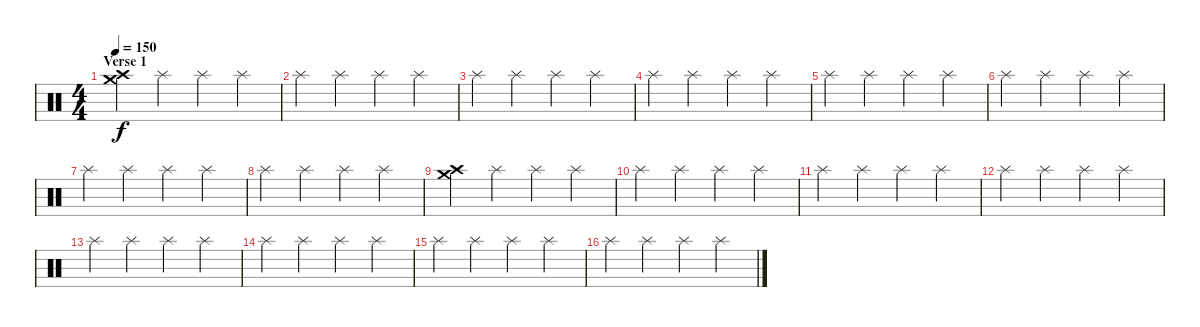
\track "" {instrument percussion}
\staff {score}
\articulation defaults
\ts (4 4)
\section ("" "Verse 1")
\tempo 150
\clef neutral
\ks c
("Crash medium (hit)" "Crash high (hit)").4{dy f} "Splash (hit)".4 "Splash (hit)".4 "Splash (hit)".4 |
"Splash (hit)".4 "Splash (hit)".4 "Splash (hit)".4 "Splash (hit)".4 |
"Splash (hit)".4 "Splash (hit)".4 "Splash (hit)".4 "Splash (hit)".4 |
"Splash (hit)".4 "Splash (hit)".4 "Splash (hit)".4 "Splash (hit)".4 |
"Splash (hit)".4 "Splash (hit)".4 "Splash (hit)".4 "Splash (hit)".4 |
"Splash (hit)".4 "Splash (hit)".4 "Splash (hit)".4 "Splash (hit)".4 |
"Splash (hit)".4 "Splash (hit)".4 "Splash (hit)".4 "Splash (hit)".4 |
"Splash (hit)".4 "Splash (hit)".4 "Splash (hit)".4 "Splash (hit)".4 |
("Crash medium (hit)" "Crash high (hit)").4 "Splash (hit)".4 "Splash (hit)".4 "Splash (hit)".4 |
"Splash (hit)".4 "Splash (hit)".4 "Splash (hit)".4 "Splash (hit)".4 |
"Splash (hit)".4 "Splash (hit)".4 "Splash (hit)".4 "Splash (hit)".4 |
"Splash (hit)".4 "Splash (hit)".4 "Splash (hit)".4 "Splash (hit)".4 |
"Splash (hit)".4 "Splash (hit)".4 "Splash (hit)".4 "Splash (hit)".4 |
"Splash (hit)".4 "Splash (hit)".4 "Splash (hit)".4 "Splash (hit)".4 |
"Splash (hit)".4 "Splash (hit)".4 "Splash (hit)".4 "Splash (hit)".4 |
"Splash (hit)".4 "Splash (hit)".4 "Splash (hit)".4 "Splash (hit)".4
